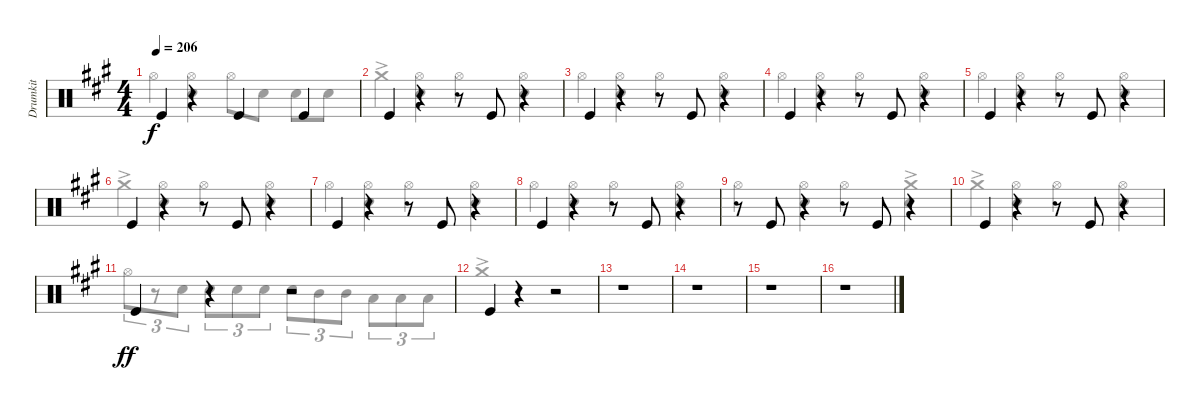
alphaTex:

\track ("Drumkit" "Drumkit") {instrument percussion}
\staff {score}
\articulation defaults
\voice
\ts (4 4)
\tempo 206
\clef neutral
\ks a "Kick (hit)".4{dy f}
r.4 "Kick (hit)".4 "Kick (hit)".4 |
"Kick (hit)".4 r.4 r.8 "Kick (hit)".8 r.4 |
"Kick (hit)".4 r.4 r.8 "Kick (hit)".8 r.4 |
"Kick (hit)".4 r.4 r.8 "Kick (hit)".8 r.4 |
"Kick (hit)".4 r.4 r.8 "Kick (hit)".8 r.4 |
"Kick (hit)".4 r.4 r.8 "Kick (hit)".8 r.4 |
"Kick (hit)".4 r.4 r.8 "Kick (hit)".8 r.4 |
"Kick (hit)".4 r.4 r.8 "Kick (hit)".8 r.4 |
r.8 "Kick (hit)".8 r.4 r.8 "Kick (hit)".8 r.4 |
"Kick (hit)".4 r.4 r.8 "Kick (hit)".8 r.4 |
"Kick (hit)".4{dy ff} r.4 r.2 |
"Kick (hit)".4 r.4 r.2 |
r.1 |
\section ("" "")
r.1 |
r.1 |
r.1
\voice
\clef neutral
\ottava regular
\simile none
\ks a "Hi-Hat (open)".4{dy f}
("Hi-Hat (open)" "Snare (hit) 2").4 "Hi-Hat (open)".8 "Snare (hit) 2".8 "Snare (hit) 2".8 "Snare (hit) 2".8 |
"Crash medium (hit)"{ac}.4 ("Hi-Hat (open)" "Snare (hit) 2").4 "Hi-Hat (open)".4 ("Hi-Hat (open)" "Snare (hit) 2").4 |
"Hi-Hat (open)".4 ("Hi-Hat (open)" "Snare (hit) 2").4 "Hi-Hat (open)".4 ("Hi-Hat (open)" "Snare (hit) 2").4 |
"Hi-Hat (open)".4 ("Hi-Hat (open)" "Snare (hit) 2").4 "Hi-Hat (open)".4 ("Hi-Hat (open)" "Snare (hit) 2").4 |
"Hi-Hat (open)".4 ("Hi-Hat (open)" "Snare (hit) 2").4 "Hi-Hat (open)".4 ("Hi-Hat (open)" "Snare (hit) 2").4 |
"Crash medium (hit)"{ac}.4 ("Hi-Hat (open)" "Snare (hit) 2").4 "Hi-Hat (open)".4 ("Hi-Hat (open)" "Snare (hit) 2").4 |
"Hi-Hat (open)".4 ("Hi-Hat (open)" "Snare (hit) 2").4 "Hi-Hat (open)".4 ("Hi-Hat (open)" "Snare (hit) 2").4 |
"Hi-Hat (open)".4 ("Hi-Hat (open)" "Snare (hit) 2").4 "Hi-Hat (open)".4 ("Hi-Hat (open)" "Snare (hit) 2").4 |
"Hi-Hat (open)".4 ("Hi-Hat (open)" "Snare (hit) 2").4 "Hi-Hat (open)".4 ("Crash medium (hit)"{ac} "Snare (hit) 2").4 |
"Crash medium (hit)"{ac}.4 ("Hi-Hat (open)" "Snare (hit) 2").4 "Hi-Hat (open)".4 ("Hi-Hat (open)" "Snare (hit) 2").4 |
"Hi-Hat (open)".8{tu (3 2) dy ff} r.8{tu (3 2)} "Snare (hit) 2".8{tu (3 2)} "Snare (hit) 2".8{tu (3 2)} "Snare (hit) 2".8{tu (3 2)} "Snare (hit) 2".8{tu (3 2)} "Snare (hit) 2".8{tu (3 2)} "Mid Tom (hit)".8{tu (3 2)} "Mid Tom (hit)".8{tu (3 2)} "Low Tom (hit)".8{tu (3 2)} "Low Tom (hit)".8{tu (3 2)} "Low Tom (hit)".8{tu (3 2)} |
"Crash medium (hit)"{ac}.1 |
r.1 |
r.1 |
r.1 |
r.1
